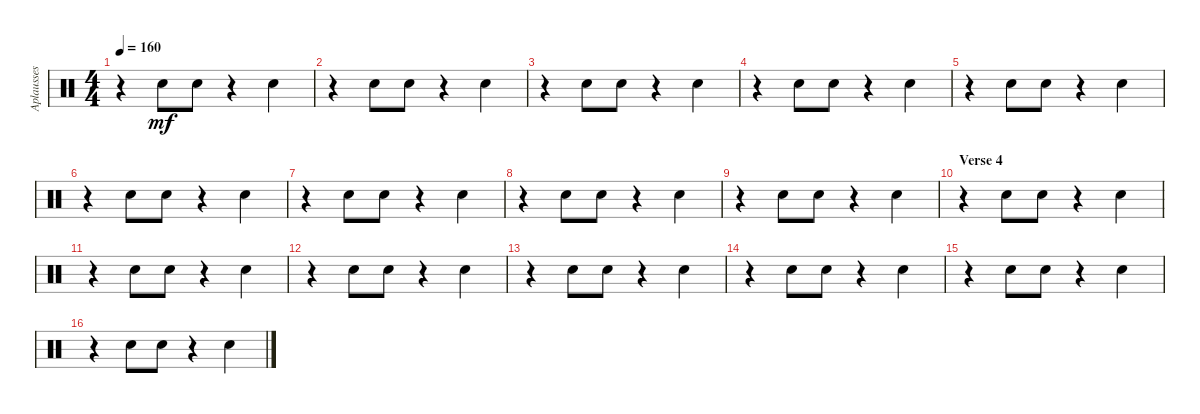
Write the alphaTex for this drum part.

\track ("Aplausses" "Aplausses") {instrument percussion}
\staff {score}
\articulation defaults
\ts (4 4)
\tempo 160
\clef neutral
\ks c
r.4{dy mf} "Hand Clap (hit)".8 "Hand Clap (hit)".8 r.4 "Hand Clap (hit)".4 |
r.4 "Hand Clap (hit)".8 "Hand Clap (hit)".8 r.4 "Hand Clap (hit)".4 |
r.4 "Hand Clap (hit)".8 "Hand Clap (hit)".8 r.4 "Hand Clap (hit)".4 |
r.4 "Hand Clap (hit)".8 "Hand Clap (hit)".8 r.4 "Hand Clap (hit)".4 |
r.4 "Hand Clap (hit)".8 "Hand Clap (hit)".8 r.4 "Hand Clap (hit)".4 |
r.4 "Hand Clap (hit)".8 "Hand Clap (hit)".8 r.4 "Hand Clap (hit)".4 |
r.4 "Hand Clap (hit)".8 "Hand Clap (hit)".8 r.4 "Hand Clap (hit)".4 |
r.4 "Hand Clap (hit)".8 "Hand Clap (hit)".8 r.4 "Hand Clap (hit)".4 |
r.4 "Hand Clap (hit)".8 "Hand Clap (hit)".8 r.4 "Hand Clap (hit)".4 |
\section ("" "Verse 4")
r.4 "Hand Clap (hit)".8 "Hand Clap (hit)".8 r.4 "Hand Clap (hit)".4 |
r.4 "Hand Clap (hit)".8 "Hand Clap (hit)".8 r.4 "Hand Clap (hit)".4 |
r.4 "Hand Clap (hit)".8 "Hand Clap (hit)".8 r.4 "Hand Clap (hit)".4 |
r.4 "Hand Clap (hit)".8 "Hand Clap (hit)".8 r.4 "Hand Clap (hit)".4 |
r.4 "Hand Clap (hit)".8 "Hand Clap (hit)".8 r.4 "Hand Clap (hit)".4 |
r.4 "Hand Clap (hit)".8 "Hand Clap (hit)".8 r.4 "Hand Clap (hit)".4 |
r.4 "Hand Clap (hit)".8 "Hand Clap (hit)".8 r.4 "Hand Clap (hit)".4
